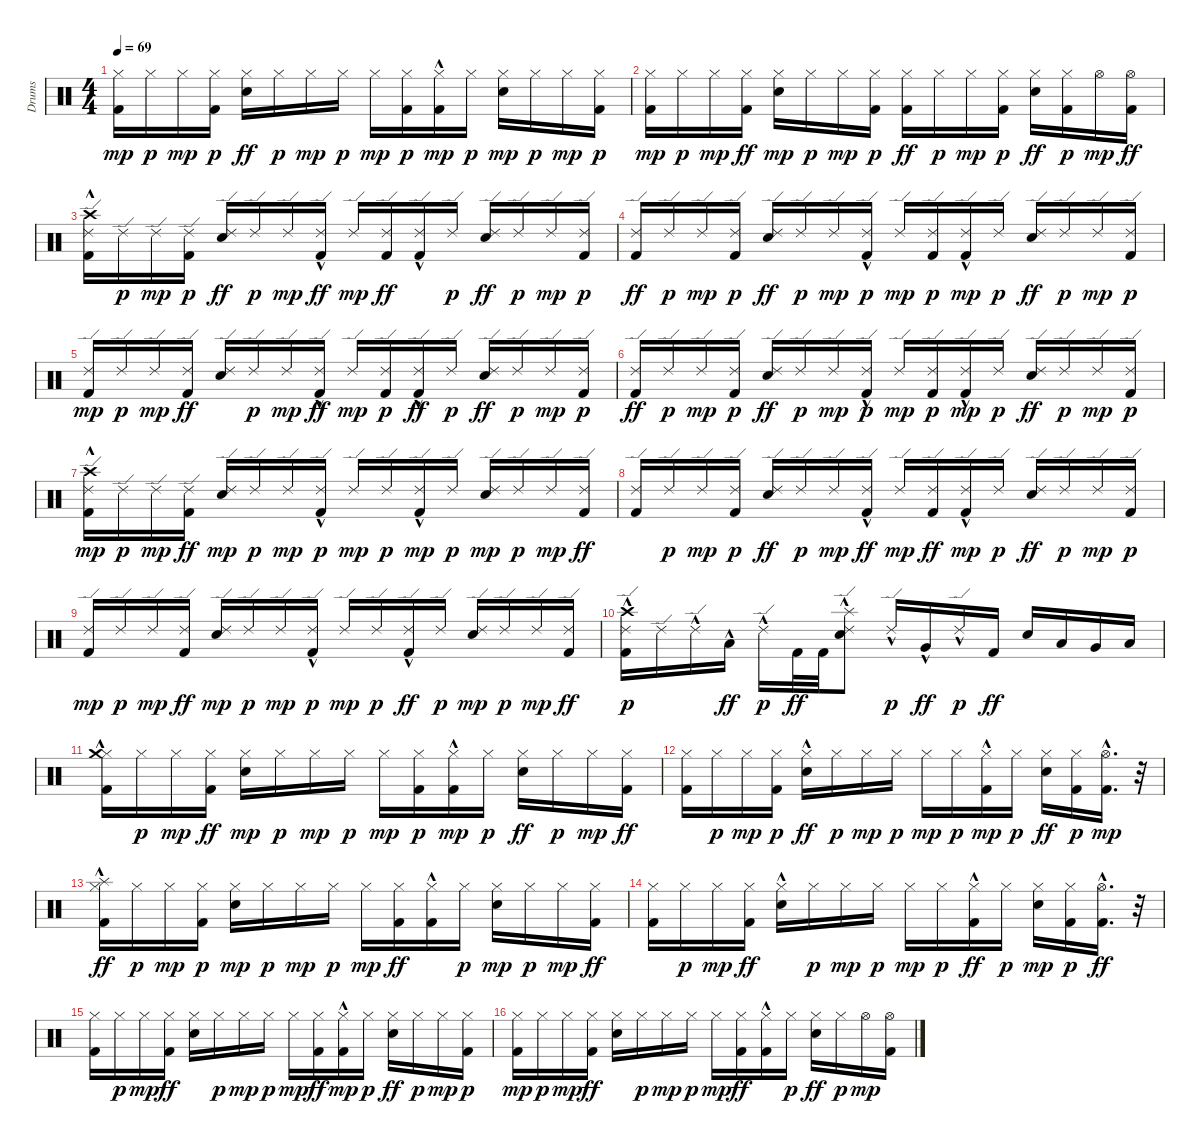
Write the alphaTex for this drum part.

\track ("Drums" "Drums") {instrument percussion}
\staff {score}
\articulation defaults
\ts (4 4)
\tempo 69
\clef neutral
\ks c
("Kick (hit) 2" "Hi-Hat (closed)").16{dy mp} "Hi-Hat (closed)".16{dy p} "Hi-Hat (closed)".16{dy mp} ("Kick (hit) 2" "Hi-Hat (closed)").16{dy p} ("Hi-Hat (closed)" "Electric Snare (hit)").16{dy ff} "Hi-Hat (closed)".16{dy p} "Hi-Hat (closed)".16{dy mp} "Hi-Hat (closed)".16{dy p} "Hi-Hat (closed)".16{dy mp} ("Kick (hit) 2" "Hi-Hat (closed)").16{dy p} ("Kick (hit) 2"{hac} "Hi-Hat (closed)").16{dy mp} "Hi-Hat (closed)".16{dy p} ("Electric Snare (hit)" "Hi-Hat (closed)").16{dy mp} "Hi-Hat (closed)".16{dy p} "Hi-Hat (closed)".16{dy mp} ("Kick (hit) 2" "Hi-Hat (closed)").16{dy p} |
("Kick (hit) 2" "Hi-Hat (closed)").16{dy mp} "Hi-Hat (closed)".16{dy p} "Hi-Hat (closed)".16{dy mp} ("Hi-Hat (closed)" "Kick (hit) 2").16{dy ff} ("Electric Snare (hit)" "Hi-Hat (closed)").16{dy mp} "Hi-Hat (closed)".16{dy p} "Hi-Hat (closed)".16{dy mp} ("Kick (hit) 2" "Hi-Hat (closed)").16{dy p} ("Hi-Hat (closed)" "Kick (hit) 2").16{dy ff} "Hi-Hat (closed)".16{dy p} "Hi-Hat (closed)".16{dy mp} ("Kick (hit) 2" "Hi-Hat (closed)").16{dy p} ("Hi-Hat (closed)" "Electric Snare (hit)").16{dy ff} ("Kick (hit) 2" "Hi-Hat (closed)").16{dy p} "Hi-Hat (open)".16{dy mp} ("Hi-Hat (open)" "Kick (hit) 2").16{dy ff} |
("Ride (edge) 2" "Crash high (hit)"{hac} "Kick (hit) 2").16 "Ride (edge) 2".16{dy p} "Ride (edge) 2".16{dy mp} ("Kick (hit) 2" "Ride (edge) 2").16{dy p} ("Ride (edge) 2" "Electric Snare (hit)").16{dy ff} "Ride (edge) 2".16{dy p} "Ride (edge) 2".16{dy mp} ("Ride (edge) 2" "Kick (hit) 2"{hac}).16{dy ff} "Ride (edge) 2".16{dy mp} ("Ride (edge) 2" "Kick (hit) 2").16{dy ff} ("Ride (edge) 2" "Kick (hit) 2"{hac}).16 "Ride (edge) 2".16{dy p} ("Ride (edge) 2" "Electric Snare (hit)").16{dy ff} "Ride (edge) 2".16{dy p} "Ride (edge) 2".16{dy mp} ("Kick (hit) 2" "Ride (edge) 2").16{dy p} |
("Ride (edge) 2" "Kick (hit) 2").16{dy ff} "Ride (edge) 2".16{dy p} "Ride (edge) 2".16{dy mp} ("Kick (hit) 2" "Ride (edge) 2").16{dy p} ("Ride (edge) 2" "Electric Snare (hit)").16{dy ff} "Ride (edge) 2".16{dy p} "Ride (edge) 2".16{dy mp} ("Kick (hit) 2"{hac} "Ride (edge) 2").16{dy p} "Ride (edge) 2".16{dy mp} ("Kick (hit) 2" "Ride (edge) 2").16{dy p} ("Kick (hit) 2"{hac} "Ride (edge) 2").16{dy mp} "Ride (edge) 2".16{dy p} ("Ride (edge) 2" "Electric Snare (hit)").16{dy ff} "Ride (edge) 2".16{dy p} "Ride (edge) 2".16{dy mp} ("Kick (hit) 2" "Ride (edge) 2").16{dy p} |
("Kick (hit) 2" "Ride (edge) 2").16{dy mp} "Ride (edge) 2".16{dy p} "Ride (edge) 2".16{dy mp} ("Ride (edge) 2" "Kick (hit) 2").16{dy ff} ("Ride (edge) 2" "Electric Snare (hit)").16 "Ride (edge) 2".16{dy p} "Ride (edge) 2".16{dy mp} ("Ride (edge) 2" "Kick (hit) 2"{hac}).16{dy ff} "Ride (edge) 2".16{dy mp} ("Kick (hit) 2" "Ride (edge) 2").16{dy p} ("Ride (edge) 2" "Kick (hit) 2"{hac}).16{dy ff} "Ride (edge) 2".16{dy p} ("Ride (edge) 2" "Electric Snare (hit)").16{dy ff} "Ride (edge) 2".16{dy p} "Ride (edge) 2".16{dy mp} ("Kick (hit) 2" "Ride (edge) 2").16{dy p} |
("Ride (edge) 2" "Kick (hit) 2").16{dy ff} "Ride (edge) 2".16{dy p} "Ride (edge) 2".16{dy mp} ("Kick (hit) 2" "Ride (edge) 2").16{dy p} ("Ride (edge) 2" "Electric Snare (hit)").16{dy ff} "Ride (edge) 2".16{dy p} "Ride (edge) 2".16{dy mp} ("Kick (hit) 2"{hac} "Ride (edge) 2").16{dy p} "Ride (edge) 2".16{dy mp} ("Kick (hit) 2" "Ride (edge) 2").16{dy p} ("Kick (hit) 2"{hac} "Ride (edge) 2").16{dy mp} "Ride (edge) 2".16{dy p} ("Ride (edge) 2" "Electric Snare (hit)").16{dy ff} "Ride (edge) 2".16{dy p} "Ride (edge) 2".16{dy mp} ("Kick (hit) 2" "Ride (edge) 2").16{dy p} |
("Kick (hit) 2" "Ride (edge) 2" "Crash high (hit)"{hac}).16{dy mp} "Ride (edge) 2".16{dy p} "Ride (edge) 2".16{dy mp} ("Ride (edge) 2" "Kick (hit) 2").16{dy ff} ("Electric Snare (hit)" "Ride (edge) 2").16{dy mp} "Ride (edge) 2".16{dy p} "Ride (edge) 2".16{dy mp} ("Kick (hit) 2"{hac} "Ride (edge) 2").16{dy p} "Ride (edge) 2".16{dy mp} "Ride (edge) 2".16{dy p} ("Kick (hit) 2"{hac} "Ride (edge) 2").16{dy mp} "Ride (edge) 2".16{dy p} ("Electric Snare (hit)" "Ride (edge) 2").16{dy mp} "Ride (edge) 2".16{dy p} "Ride (edge) 2".16{dy mp} ("Ride (edge) 2" "Kick (hit) 2").16{dy ff} |
("Ride (edge) 2" "Kick (hit) 2").16 "Ride (edge) 2".16{dy p} "Ride (edge) 2".16{dy mp} ("Kick (hit) 2" "Ride (edge) 2").16{dy p} ("Ride (edge) 2" "Electric Snare (hit)").16{dy ff} "Ride (edge) 2".16{dy p} "Ride (edge) 2".16{dy mp} ("Ride (edge) 2" "Kick (hit) 2"{hac}).16{dy ff} "Ride (edge) 2".16{dy mp} ("Ride (edge) 2" "Kick (hit) 2").16{dy ff} ("Kick (hit) 2"{hac} "Ride (edge) 2").16{dy mp} "Ride (edge) 2".16{dy p} ("Ride (edge) 2" "Electric Snare (hit)").16{dy ff} "Ride (edge) 2".16{dy p} "Ride (edge) 2".16{dy mp} ("Kick (hit) 2" "Ride (edge) 2").16{dy p} |
("Kick (hit) 2" "Ride (edge) 2").16{dy mp} "Ride (edge) 2".16{dy p} "Ride (edge) 2".16{dy mp} ("Ride (edge) 2" "Kick (hit) 2").16{dy ff} ("Electric Snare (hit)" "Ride (edge) 2").16{dy mp} "Ride (edge) 2".16{dy p} "Ride (edge) 2".16{dy mp} ("Kick (hit) 2"{hac} "Ride (edge) 2").16{dy p} "Ride (edge) 2".16{dy mp} "Ride (edge) 2".16{dy p} ("Ride (edge) 2" "Kick (hit) 2"{hac}).16{dy ff} "Ride (edge) 2".16{dy p} ("Electric Snare (hit)" "Ride (edge) 2").16{dy mp} "Ride (edge) 2".16{dy p} "Ride (edge) 2".16{dy mp} ("Ride (edge) 2" "Kick (hit) 2").16{dy ff} |
("Kick (hit) 2" "Crash high (hit)"{hac} "Ride (edge) 2").16{dy p} "Ride (edge) 2".16 "Ride (edge) 2"{hac}.16 "Low Tom (hit)"{hac}.16{dy ff} "Ride (edge) 2"{hac}.16{dy p} "Kick (hit) 2".32{dy ff} "Kick (hit) 2".32 ("Ride (edge) 2"{hac} "Electric Snare (hit)" "Splash (hit)").8 "Ride (edge) 2"{hac}.16{dy p} "Very Low Tom (hit)"{hac}.16{dy ff} "Ride (edge) 2"{hac}.16{dy p} "Kick (hit) 2".16{dy ff} "Electric Snare (hit)".16 "Low Floor Tom (hit)".16 "Very Low Tom (hit)".16 "Low Floor Tom (hit)".16 |
("Hi-Hat (closed)" "Kick (hit) 2" "Crash medium (hit)"{hac}).16 "Hi-Hat (closed)".16{dy p} "Hi-Hat (closed)".16{dy mp} ("Hi-Hat (closed)" "Kick (hit) 2").16{dy ff} ("Electric Snare (hit)" "Hi-Hat (closed)").16{dy mp} "Hi-Hat (closed)".16{dy p} "Hi-Hat (closed)".16{dy mp} "Hi-Hat (closed)".16{dy p} "Hi-Hat (closed)".16{dy mp} ("Kick (hit) 2" "Hi-Hat (closed)").16{dy p} ("Kick (hit) 2"{hac} "Hi-Hat (closed)").16{dy mp} "Hi-Hat (closed)".16{dy p} ("Hi-Hat (closed)" "Electric Snare (hit)").16{dy ff} "Hi-Hat (closed)".16{dy p} "Hi-Hat (closed)".16{dy mp} ("Hi-Hat (closed)" "Kick (hit) 2").16{dy ff} |
("Hi-Hat (closed)" "Kick (hit) 2").16 "Hi-Hat (closed)".16{dy p} "Hi-Hat (closed)".16{dy mp} ("Kick (hit) 2" "Hi-Hat (closed)").16{dy p} ("Hi-Hat (closed)" "Electric Snare (hit)"{hac}).16{dy ff} "Hi-Hat (closed)".16{dy p} "Hi-Hat (closed)".16{dy mp} "Hi-Hat (closed)".16{dy p} "Hi-Hat (closed)".16{dy mp} "Hi-Hat (closed)".16{dy p} ("Kick (hit) 2"{hac} "Hi-Hat (closed)").16{dy mp} "Hi-Hat (closed)".16{dy p} ("Hi-Hat (closed)" "Electric Snare (hit)").16{dy ff} ("Kick (hit) 2" "Hi-Hat (closed)").16{dy p} ("Kick (hit) 2"{hac} "Hi-Hat (open)"{hac}).16{d dy mp} r.32 |
("Hi-Hat (closed)" "Splash (hit)"{hac} "Kick (hit) 2").16{dy ff} "Hi-Hat (closed)".16{dy p} "Hi-Hat (closed)".16{dy mp} ("Kick (hit) 2" "Hi-Hat (closed)").16{dy p} ("Electric Snare (hit)" "Hi-Hat (closed)").16{dy mp} "Hi-Hat (closed)".16{dy p} "Hi-Hat (closed)".16{dy mp} "Hi-Hat (closed)".16{dy p} "Hi-Hat (closed)".16{dy mp} ("Hi-Hat (closed)" "Kick (hit) 2").16{dy ff} ("Hi-Hat (closed)" "Kick (hit) 2"{hac}).16 "Hi-Hat (closed)".16{dy p} ("Electric Snare (hit)" "Hi-Hat (closed)").16{dy mp} "Hi-Hat (closed)".16{dy p} "Hi-Hat (closed)".16{dy mp} ("Hi-Hat (closed)" "Kick (hit) 2").16{dy ff} |
("Hi-Hat (closed)" "Kick (hit) 2").16 "Hi-Hat (closed)".16{dy p} "Hi-Hat (closed)".16{dy mp} ("Hi-Hat (closed)" "Kick (hit) 2").16{dy ff} ("Hi-Hat (closed)" "Electric Snare (hit)"{hac}).16 "Hi-Hat (closed)".16{dy p} "Hi-Hat (closed)".16{dy mp} "Hi-Hat (closed)".16{dy p} "Hi-Hat (closed)".16{dy mp} "Hi-Hat (closed)".16{dy p} ("Hi-Hat (closed)" "Kick (hit) 2"{hac}).16{dy ff} "Hi-Hat (closed)".16{dy p} ("Electric Snare (hit)" "Hi-Hat (closed)").16{dy mp} ("Kick (hit) 2" "Hi-Hat (closed)").16{dy p} ("Hi-Hat (open)"{hac} "Kick (hit) 2"{hac}).16{d dy ff} r.32 |
("Hi-Hat (closed)" "Kick (hit) 2").16 "Hi-Hat (closed)".16{dy p} "Hi-Hat (closed)".16{dy mp} ("Hi-Hat (closed)" "Kick (hit) 2").16{dy ff} ("Hi-Hat (closed)" "Electric Snare (hit)").16 "Hi-Hat (closed)".16{dy p} "Hi-Hat (closed)".16{dy mp} "Hi-Hat (closed)".16{dy p} "Hi-Hat (closed)".16{dy mp} ("Hi-Hat (closed)" "Kick (hit) 2").16{dy ff} ("Kick (hit) 2"{hac} "Hi-Hat (closed)").16{dy mp} "Hi-Hat (closed)".16{dy p} ("Hi-Hat (closed)" "Electric Snare (hit)").16{dy ff} "Hi-Hat (closed)".16{dy p} "Hi-Hat (closed)".16{dy mp} ("Kick (hit) 2" "Hi-Hat (closed)").16{dy p} |
("Kick (hit) 2" "Hi-Hat (closed)").16{dy mp} "Hi-Hat (closed)".16{dy p} "Hi-Hat (closed)".16{dy mp} ("Hi-Hat (closed)" "Kick (hit) 2").16{dy ff} ("Hi-Hat (closed)" "Electric Snare (hit)").16 "Hi-Hat (closed)".16{dy p} "Hi-Hat (closed)".16{dy mp} "Hi-Hat (closed)".16{dy p} "Hi-Hat (closed)".16{dy mp} ("Hi-Hat (closed)" "Kick (hit) 2").16{dy ff} ("Hi-Hat (closed)" "Kick (hit) 2"{hac}).16 "Hi-Hat (closed)".16{dy p} ("Hi-Hat (closed)" "Electric Snare (hit)").16{dy ff} "Hi-Hat (closed)".16{dy p} "Hi-Hat (open)".16{dy mp} ("Kick (hit) 2" "Hi-Hat (open)").16
